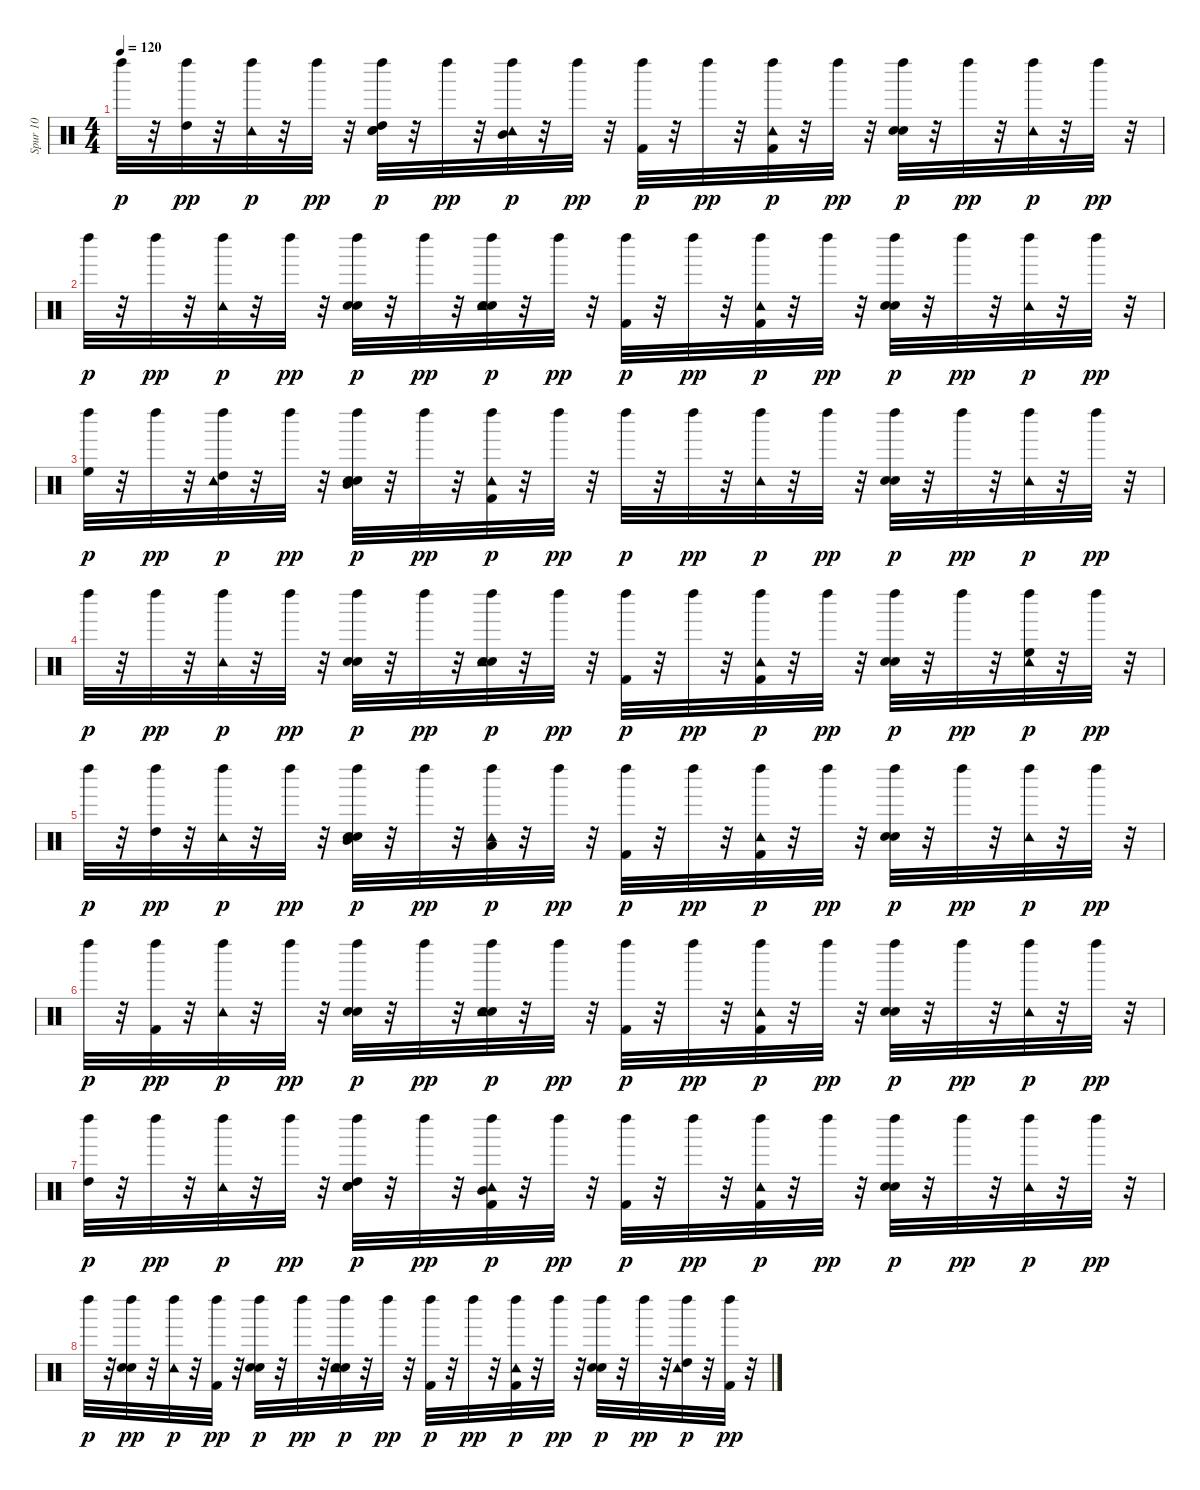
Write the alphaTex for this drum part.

\track ("Spur 10" "Spur 10") {instrument percussion}
\staff {score}
\articulation defaults
\ts (4 4)
\tempo 120
\clef neutral
\ks c "Left Maraca (hit)".32{dy p}
r.32 ("High Tom (hit)" "Left Maraca (hit)").32{dy pp} r.32 ("Tambourine (hit)" "Left Maraca (hit)").32{dy p} r.32 "Left Maraca (hit)".32{dy pp} r.32 ("Hand Clap (hit)" "Electric Snare (hit)" "High Tom (hit)" "Left Maraca (hit)").32{dy p} r.32 "Left Maraca (hit)".32{dy pp} r.32 ("Mid Tom (hit)" "Tambourine (hit)" "Left Maraca (hit)").32{dy p} r.32 "Left Maraca (hit)".32{dy pp} r.32 ("Kick (hit) 2" "Left Maraca (hit)").32{dy p} r.32 "Left Maraca (hit)".32{dy pp} r.32 ("Kick (hit) 2" "Tambourine (hit)" "Left Maraca (hit)").32{dy p} r.32 "Left Maraca (hit)".32{dy pp} r.32 ("Hand Clap (hit)" "Electric Snare (hit)" "Left Maraca (hit)").32{dy p} r.32 "Left Maraca (hit)".32{dy pp} r.32 ("Tambourine (hit)" "Left Maraca (hit)").32{dy p} r.32 "Left Maraca (hit)".32{dy pp} r.32 |
"Left Maraca (hit)".32{dy p} r.32 "Left Maraca (hit)".32{dy pp} r.32 ("Tambourine (hit)" "Left Maraca (hit)").32{dy p} r.32 "Left Maraca (hit)".32{dy pp} r.32 ("Hand Clap (hit)" "Electric Snare (hit)" "Left Maraca (hit)").32{dy p} r.32 "Left Maraca (hit)".32{dy pp} r.32 ("Hand Clap (hit)" "Electric Snare (hit)" "Tambourine (hit)" "Left Maraca (hit)").32{dy p} r.32 "Left Maraca (hit)".32{dy pp} r.32 ("Kick (hit) 2" "Left Maraca (hit)").32{dy p} r.32 "Left Maraca (hit)".32{dy pp} r.32 ("Kick (hit) 2" "Tambourine (hit)" "Left Maraca (hit)").32{dy p} r.32 "Left Maraca (hit)".32{dy pp} r.32 ("Hand Clap (hit)" "Electric Snare (hit)" "Left Maraca (hit)").32{dy p} r.32 "Left Maraca (hit)".32{dy pp} r.32 ("Tambourine (hit)" "Left Maraca (hit)").32{dy p} r.32 "Left Maraca (hit)".32{dy pp} r.32 |
("High Floor Tom (hit)" "Left Maraca (hit)").32{dy p} r.32 "Left Maraca (hit)".32{dy pp} r.32 ("High Tom (hit)" "Tambourine (hit)" "Left Maraca (hit)").32{dy p} r.32 "Left Maraca (hit)".32{dy pp} r.32 ("Hand Clap (hit)" "Electric Snare (hit)" "Mid Tom (hit)" "Left Maraca (hit)").32{dy p} r.32 "Left Maraca (hit)".32{dy pp} r.32 ("Kick (hit) 2" "Tambourine (hit)" "Left Maraca (hit)").32{dy p} r.32 "Left Maraca (hit)".32{dy pp} r.32 "Left Maraca (hit)".32{dy p} r.32 "Left Maraca (hit)".32{dy pp} r.32 ("Tambourine (hit)" "Left Maraca (hit)").32{dy p} r.32 "Left Maraca (hit)".32{dy pp} r.32 ("Hand Clap (hit)" "Electric Snare (hit)" "Left Maraca (hit)").32{dy p} r.32 "Left Maraca (hit)".32{dy pp} r.32 ("Tambourine (hit)" "Left Maraca (hit)").32{dy p} r.32 "Left Maraca (hit)".32{dy pp} r.32 |
"Left Maraca (hit)".32{dy p} r.32 "Left Maraca (hit)".32{dy pp} r.32 ("Tambourine (hit)" "Left Maraca (hit)").32{dy p} r.32 "Left Maraca (hit)".32{dy pp} r.32 ("Hand Clap (hit)" "Electric Snare (hit)" "Left Maraca (hit)").32{dy p} r.32 "Left Maraca (hit)".32{dy pp} r.32 ("Hand Clap (hit)" "Electric Snare (hit)" "Tambourine (hit)" "Left Maraca (hit)").32{dy p} r.32 "Left Maraca (hit)".32{dy pp} r.32 ("Kick (hit) 2" "Left Maraca (hit)").32{dy p} r.32 "Left Maraca (hit)".32{dy pp} r.32 ("Kick (hit) 2" "Tambourine (hit)" "Left Maraca (hit)").32{dy p} r.32 "Left Maraca (hit)".32{dy pp} r.32 ("Hand Clap (hit)" "Electric Snare (hit)" "Left Maraca (hit)").32{dy p} r.32 "Left Maraca (hit)".32{dy pp} r.32 ("High Floor Tom (hit)" "Tambourine (hit)" "Left Maraca (hit)").32{dy p} r.32 "Left Maraca (hit)".32{dy pp} r.32 |
"Left Maraca (hit)".32{dy p} r.32 ("High Tom (hit)" "Left Maraca (hit)").32{dy pp} r.32 ("Tambourine (hit)" "Left Maraca (hit)").32{dy p} r.32 "Left Maraca (hit)".32{dy pp} r.32 ("Hand Clap (hit)" "Electric Snare (hit)" "Mid Tom (hit)" "Left Maraca (hit)").32{dy p} r.32 "Left Maraca (hit)".32{dy pp} r.32 ("Low Tom (hit)" "Tambourine (hit)" "Left Maraca (hit)").32{dy p} r.32 "Left Maraca (hit)".32{dy pp} r.32 ("Kick (hit) 2" "Left Maraca (hit)").32{dy p} r.32 "Left Maraca (hit)".32{dy pp} r.32 ("Kick (hit) 2" "Tambourine (hit)" "Left Maraca (hit)").32{dy p} r.32 "Left Maraca (hit)".32{dy pp} r.32 ("Hand Clap (hit)" "Electric Snare (hit)" "Left Maraca (hit)").32{dy p} r.32 "Left Maraca (hit)".32{dy pp} r.32 ("Tambourine (hit)" "Left Maraca (hit)").32{dy p} r.32 "Left Maraca (hit)".32{dy pp} r.32 |
"Left Maraca (hit)".32{dy p} r.32 ("Kick (hit) 2" "Left Maraca (hit)").32{dy pp} r.32 ("Tambourine (hit)" "Left Maraca (hit)").32{dy p} r.32 "Left Maraca (hit)".32{dy pp} r.32 ("Hand Clap (hit)" "Electric Snare (hit)" "Left Maraca (hit)").32{dy p} r.32 "Left Maraca (hit)".32{dy pp} r.32 ("Hand Clap (hit)" "Electric Snare (hit)" "Tambourine (hit)" "Left Maraca (hit)").32{dy p} r.32 "Left Maraca (hit)".32{dy pp} r.32 ("Kick (hit) 2" "Left Maraca (hit)").32{dy p} r.32 "Left Maraca (hit)".32{dy pp} r.32 ("Kick (hit) 2" "Tambourine (hit)" "Left Maraca (hit)").32{dy p} r.32 "Left Maraca (hit)".32{dy pp} r.32 ("Hand Clap (hit)" "Electric Snare (hit)" "Left Maraca (hit)").32{dy p} r.32 "Left Maraca (hit)".32{dy pp} r.32 ("Tambourine (hit)" "Left Maraca (hit)").32{dy p} r.32 "Left Maraca (hit)".32{dy pp} r.32 |
("High Tom (hit)" "Left Maraca (hit)").32{dy p} r.32 "Left Maraca (hit)".32{dy pp} r.32 ("Tambourine (hit)" "Left Maraca (hit)").32{dy p} r.32 "Left Maraca (hit)".32{dy pp} r.32 ("Hand Clap (hit)" "Electric Snare (hit)" "High Tom (hit)" "Left Maraca (hit)").32{dy p} r.32 "Left Maraca (hit)".32{dy pp} r.32 ("Kick (hit) 2" "Mid Tom (hit)" "Tambourine (hit)" "Left Maraca (hit)").32{dy p} r.32 "Left Maraca (hit)".32{dy pp} r.32 ("Kick (hit) 2" "Left Maraca (hit)").32{dy p} r.32 "Left Maraca (hit)".32{dy pp} r.32 ("Kick (hit) 2" "Tambourine (hit)" "Left Maraca (hit)").32{dy p} r.32 "Left Maraca (hit)".32{dy pp} r.32 ("Hand Clap (hit)" "Electric Snare (hit)" "Left Maraca (hit)").32{dy p} r.32 "Left Maraca (hit)".32{dy pp} r.32 ("Tambourine (hit)" "Left Maraca (hit)").32{dy p} r.32 "Left Maraca (hit)".32{dy pp} r.32 |
"Left Maraca (hit)".32{dy p} r.32 ("Hand Clap (hit)" "Electric Snare (hit)" "Left Maraca (hit)").32{dy pp} r.32 ("Tambourine (hit)" "Left Maraca (hit)").32{dy p} r.32 ("Kick (hit) 2" "Left Maraca (hit)").32{dy pp} r.32 ("Hand Clap (hit)" "Electric Snare (hit)" "Left Maraca (hit)").32{dy p} r.32 "Left Maraca (hit)".32{dy pp} r.32 ("Hand Clap (hit)" "Electric Snare (hit)" "Tambourine (hit)" "Left Maraca (hit)").32{dy p} r.32 "Left Maraca (hit)".32{dy pp} r.32 ("Kick (hit) 2" "Left Maraca (hit)").32{dy p} r.32 "Left Maraca (hit)".32{dy pp} r.32 ("Kick (hit) 2" "Tambourine (hit)" "Left Maraca (hit)").32{dy p} r.32 "Left Maraca (hit)".32{dy pp} r.32 ("Hand Clap (hit)" "Electric Snare (hit)" "Left Maraca (hit)").32{dy p} r.32 "Left Maraca (hit)".32{dy pp} r.32 ("High Tom (hit)" "Tambourine (hit)" "Left Maraca (hit)").32{dy p} r.32 ("Kick (hit) 2" "Left Maraca (hit)").32{dy pp} r.32
